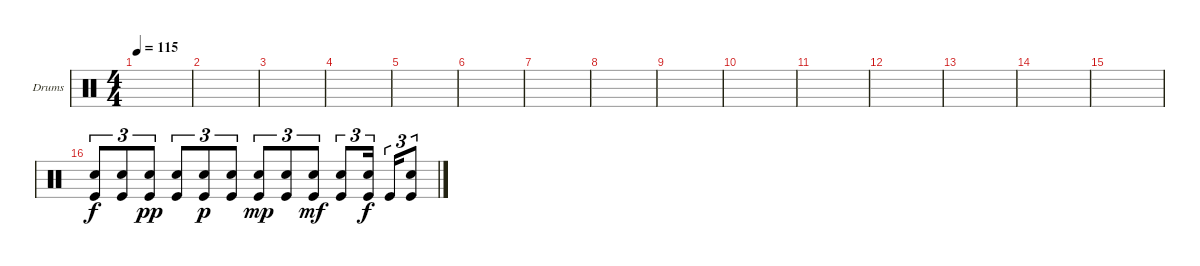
\bracketExtendMode groupsimilarinstruments
\firstSystemTrackNameOrientation horizontal
\otherSystemsTrackNameOrientation horizontal
\track ("Drumkit" "Drums") {instrument percussion}
\staff {score}
\articulation defaults
\ts (4 4)
\tempo 115
\clef neutral
\ks c
|
|
|
|
|
|
|
|
|
|
|
|
|
|
|
("Kick (hit)" "Snare (hit) 2").8{tu (3 2)} ("Kick (hit)" "Snare (hit) 2").8{tu (3 2)} ("Kick (hit)" "Snare (hit) 2").8{tu (3 2) dy pp} ("Kick (hit)" "Snare (hit) 2").8{tu (3 2)} ("Kick (hit)" "Snare (hit) 2").8{tu (3 2) dy p} ("Kick (hit)" "Snare (hit) 2").8{tu (3 2)} ("Kick (hit)" "Snare (hit) 2").8{tu (3 2) dy mp} ("Kick (hit)" "Snare (hit) 2").8{tu (3 2)} ("Kick (hit)" "Snare (hit) 2").8{tu (3 2) dy mf} ("Kick (hit)" "Snare (hit) 2").8{tu (3 2)} ("Kick (hit)" "Snare (hit) 2").16{tu (3 2) dy f} "Kick (hit)".16{tu (3 2)} ("Kick (hit)" "Snare (hit) 2").8{tu (3 2)}
